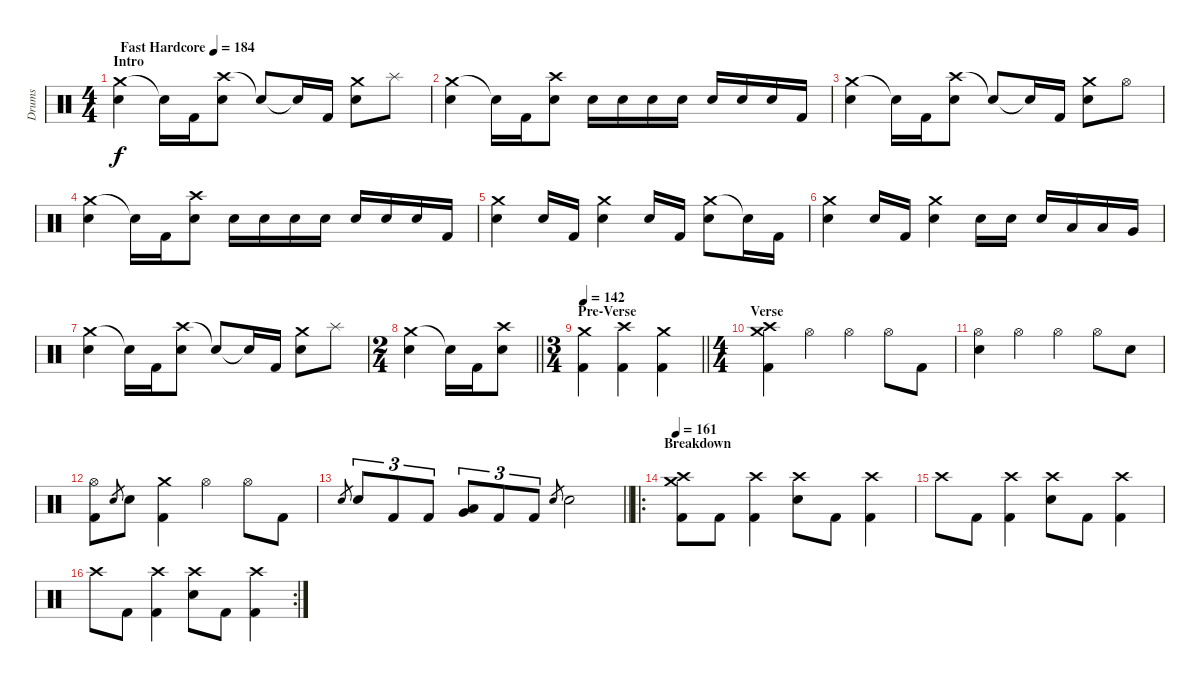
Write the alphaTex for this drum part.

\track ("Drums" "Drums") {instrument percussion}
\staff {score}
\articulation defaults
\ts (4 4)
\section ("" "Intro")
\tempo (184 "Fast Hardcore")
\clef neutral
\ks c
("Crash medium (hit)" "Electric Snare (hit)").4{dy f} "Electric Snare (hit)"{t}.16 "Kick (hit) 2".16 ("Crash high (hit)" "Electric Snare (hit)").8 "Electric Snare (hit)"{t}.8 "Snare (hit)"{t}.16 "Kick (hit) 2".16 ("Crash medium (hit)" "Electric Snare (hit)").8 "Splash (hit)".8 |
("Crash medium (hit)" "Electric Snare (hit)").4 "Electric Snare (hit)"{t}.16 "Kick (hit) 2".16 ("Crash high (hit)" "Electric Snare (hit)").8 "Electric Snare (hit)".16 "Electric Snare (hit)".16 "Electric Snare (hit)".16 "Electric Snare (hit)".16 "Electric Snare (hit)".16 "Electric Snare (hit)".16 "Electric Snare (hit)".16 "Kick (hit) 2".16 |
("Crash medium (hit)" "Electric Snare (hit)").4 "Electric Snare (hit)"{t}.16 "Kick (hit) 2".16 ("Crash high (hit)" "Electric Snare (hit)").8 "Electric Snare (hit)"{t}.8 "Snare (hit)"{t}.16 "Kick (hit) 2".16 ("Crash medium (hit)" "Electric Snare (hit)").8 "Hi-Hat (open)".8 |
("Crash medium (hit)" "Electric Snare (hit)").4 "Electric Snare (hit)"{t}.16 "Kick (hit) 2".16 ("Crash high (hit)" "Electric Snare (hit)").8 "Electric Snare (hit)".16 "Electric Snare (hit)".16 "Electric Snare (hit)".16 "Electric Snare (hit)".16 "Electric Snare (hit)".16 "Electric Snare (hit)".16 "Electric Snare (hit)".16 "Kick (hit) 2".16 |
("Crash medium (hit)" "Electric Snare (hit)").4 "Electric Snare (hit)".16 "Kick (hit) 2".16 ("Crash medium (hit)" "Electric Snare (hit)").4 "Electric Snare (hit)".16 "Kick (hit) 2".16 ("Crash medium (hit)" "Electric Snare (hit)").8 "Snare (hit)"{t}.16 "Kick (hit) 2".16 |
("Crash medium (hit)" "Electric Snare (hit)").4 "Electric Snare (hit)".16 "Kick (hit) 2".16 ("Crash medium (hit)" "Electric Snare (hit)").4 "Electric Snare (hit)".16 "Electric Snare (hit)".16 "Electric Snare (hit)".16 "Low Tom (hit)".16 "Low Tom (hit)".16 "Very Low Tom (hit)".16 |
("Crash medium (hit)" "Electric Snare (hit)").4 "Electric Snare (hit)"{t}.16 "Kick (hit) 2".16 ("Crash high (hit)" "Electric Snare (hit)").8 "Electric Snare (hit)"{t}.8 "Snare (hit)"{t}.16 "Kick (hit) 2".16 ("Crash medium (hit)" "Electric Snare (hit)").8 "Splash (hit)".8 |
\ts (2 4)
\barLineRight lightlight
("Crash medium (hit)" "Electric Snare (hit)").4 "Electric Snare (hit)"{t}.16 "Kick (hit) 2".16 ("Crash high (hit)" "Electric Snare (hit)").8 |
\ts (3 4)
\section ("" "Pre-Verse")
\tempo 142
\barLineRight lightlight
("Crash medium (hit)" "Kick (hit) 2").4 ("Crash high (hit)" "Kick (hit) 2").4 ("Crash medium (hit)" "Kick (hit) 2").4 |
\ts (4 4)
\section ("" "Verse")
("Crash medium (hit)" "Crash high (hit)" "Kick (hit) 2").4 "Hi-Hat (open)".4 "Hi-Hat (open)".4 "Hi-Hat (open)".8 "Kick (hit) 2".8 |
("Hi-Hat (open)" "Electric Snare (hit)").4 "Hi-Hat (open)".4 "Hi-Hat (open)".4 "Hi-Hat (open)".8 "Electric Snare (hit)".8 |
("Hi-Hat (open)" "Kick (hit) 2").8 "Electric Snare (hit)".8{gr} "Electric Snare (hit)".8 ("Crash medium (hit)" "Kick (hit) 2").4 "Hi-Hat (open)".4 "Hi-Hat (open)".8 "Kick (hit) 2".8 |
\barLineRight lightlight "Electric Snare (hit)".8{gr} "Electric Snare (hit)".8{tu (3 2)} "Kick (hit) 2".8{tu (3 2)} "Kick (hit) 2".8{tu (3 2)}
("Very Low Tom (hit)" "Low Floor Tom (hit)").8{tu (3 2)} "Kick (hit) 2".8{tu (3 2)} "Kick (hit) 2".8{tu (3 2)} "Electric Snare (hit)".8{gr} "Electric Snare (hit)".2 |
\ro
\section ("" "Breakdown")
\tempo 161
("Crash medium (hit)" "Crash high (hit)" "Kick (hit) 2").8 "Kick (hit) 2".8 ("Crash high (hit)" "Kick (hit) 2").4 ("Crash high (hit)" "Electric Snare (hit)").8 "Kick (hit) 2".8 ("Crash high (hit)" "Kick (hit) 2").4 |
"Crash high (hit)".8 "Kick (hit) 2".8 ("Crash high (hit)" "Kick (hit) 2").4 ("Crash high (hit)" "Electric Snare (hit)").8 "Kick (hit) 2".8 ("Crash high (hit)" "Kick (hit) 2").4 |
\rc 2 "Crash high (hit)".8 "Kick (hit) 2".8
("Crash high (hit)" "Kick (hit) 2").4 ("Crash high (hit)" "Electric Snare (hit)").8 "Kick (hit) 2".8 ("Crash high (hit)" "Kick (hit) 2").4
